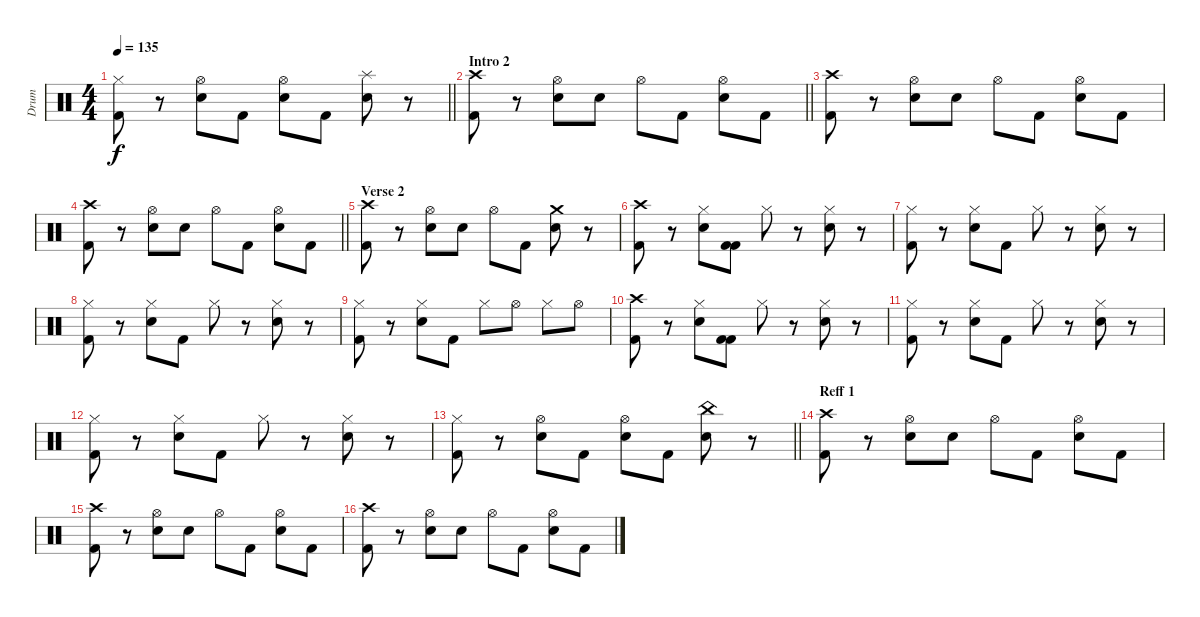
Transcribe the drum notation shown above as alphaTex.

\track ("Drum" "Drum") {instrument percussion}
\staff {score}
\articulation defaults
\ts (4 4)
\tempo 135
\clef neutral
\barLineRight lightlight
\ks c
("Hi-Hat (closed)" "Kick (hit) 2").8{dy f} r.8 ("Electric Snare (hit)" "Hi-Hat (open)").8 "Kick (hit) 2".8 ("Electric Snare (hit)" "Hi-Hat (open)").8 "Kick (hit) 2".8 ("Splash (hit)" "Electric Snare (hit)").8 r.8 |
\section ("" "Intro 2")
\barLineRight lightlight
("Crash high (hit)" "Kick (hit) 2").8 r.8 ("Hi-Hat (open)" "Electric Snare (hit)").8 "Electric Snare (hit)".8 "Hi-Hat (open)".8 "Kick (hit) 2".8 ("Hi-Hat (open)" "Electric Snare (hit)").8 "Kick (hit) 2".8 |
("Crash high (hit)" "Kick (hit) 2").8 r.8 ("Hi-Hat (open)" "Electric Snare (hit)").8 "Electric Snare (hit)".8 "Hi-Hat (open)".8 "Kick (hit) 2".8 ("Hi-Hat (open)" "Electric Snare (hit)").8 "Kick (hit) 2".8 |
\barLineRight lightlight
("Crash high (hit)" "Kick (hit) 2").8 r.8 ("Hi-Hat (open)" "Electric Snare (hit)").8 "Electric Snare (hit)".8 "Hi-Hat (open)".8 "Kick (hit) 2".8 ("Hi-Hat (open)" "Electric Snare (hit)").8 "Kick (hit) 2".8 |
\section ("" "Verse 2")
("Crash high (hit)" "Kick (hit) 2").8 r.8 ("Electric Snare (hit)" "Hi-Hat (open)").8 "Electric Snare (hit)".8 "Hi-Hat (open)".8 "Kick (hit) 2".8 ("Crash medium (hit)" "Electric Snare (hit)").8 r.8 |
("Crash high (hit)" "Kick (hit) 2").8 r.8 ("Hi-Hat (closed)" "Electric Snare (hit)").8 ("Kick (hit) 2" "Kick (hit) 2").8 "Hi-Hat (closed)".8 r.8 ("Hi-Hat (closed)" "Electric Snare (hit)").8 r.8 |
("Hi-Hat (closed)" "Kick (hit) 2").8 r.8 ("Hi-Hat (closed)" "Electric Snare (hit)").8 "Kick (hit) 2".8 "Hi-Hat (closed)".8 r.8 ("Hi-Hat (closed)" "Electric Snare (hit)").8 r.8 |
("Hi-Hat (closed)" "Kick (hit) 2").8 r.8 ("Hi-Hat (closed)" "Electric Snare (hit)").8 "Kick (hit) 2".8 "Hi-Hat (closed)".8 r.8 ("Hi-Hat (closed)" "Electric Snare (hit)").8 r.8 |
("Hi-Hat (closed)" "Kick (hit) 2").8 r.8 ("Electric Snare (hit)" "Hi-Hat (closed)").8 "Kick (hit) 2".8 "Hi-Hat (closed)".8 "Hi-Hat (open)".8 "Hi-Hat (closed)".8 "Hi-Hat (open)".8 |
("Crash high (hit)" "Kick (hit) 2").8 r.8 ("Hi-Hat (closed)" "Electric Snare (hit)").8 ("Kick (hit) 2" "Kick (hit) 2").8 "Hi-Hat (closed)".8 r.8 ("Hi-Hat (closed)" "Electric Snare (hit)").8 r.8 |
("Hi-Hat (closed)" "Kick (hit) 2").8 r.8 ("Hi-Hat (closed)" "Electric Snare (hit)").8 "Kick (hit) 2".8 "Hi-Hat (closed)".8 r.8 ("Hi-Hat (closed)" "Electric Snare (hit)").8 r.8 |
("Hi-Hat (closed)" "Kick (hit) 2").8 r.8 ("Hi-Hat (closed)" "Electric Snare (hit)").8 "Kick (hit) 2".8 "Hi-Hat (closed)".8 r.8 ("Hi-Hat (closed)" "Electric Snare (hit)").8 r.8 |
\barLineRight lightlight
("Hi-Hat (closed)" "Kick (hit) 2").8 r.8 ("Electric Snare (hit)" "Hi-Hat (open)").8 "Kick (hit) 2".8 ("Electric Snare (hit)" "Hi-Hat (open)").8 "Kick (hit) 2".8 ("China (hit)" "Electric Snare (hit)").8 r.8 |
\section ("" "Reff 1")
("Crash high (hit)" "Kick (hit) 2").8 r.8 ("Electric Snare (hit)" "Hi-Hat (open)").8 "Electric Snare (hit)".8 "Hi-Hat (open)".8 "Kick (hit) 2".8 ("Electric Snare (hit)" "Hi-Hat (open)").8 "Kick (hit) 2".8 |
("Crash high (hit)" "Kick (hit) 2").8 r.8 ("Electric Snare (hit)" "Hi-Hat (open)").8 "Electric Snare (hit)".8 "Hi-Hat (open)".8 "Kick (hit) 2".8 ("Electric Snare (hit)" "Hi-Hat (open)").8 "Kick (hit) 2".8 |
("Crash high (hit)" "Kick (hit) 2").8 r.8 ("Electric Snare (hit)" "Hi-Hat (open)").8 "Electric Snare (hit)".8 "Hi-Hat (open)".8 "Kick (hit) 2".8 ("Electric Snare (hit)" "Hi-Hat (open)").8 "Kick (hit) 2".8
